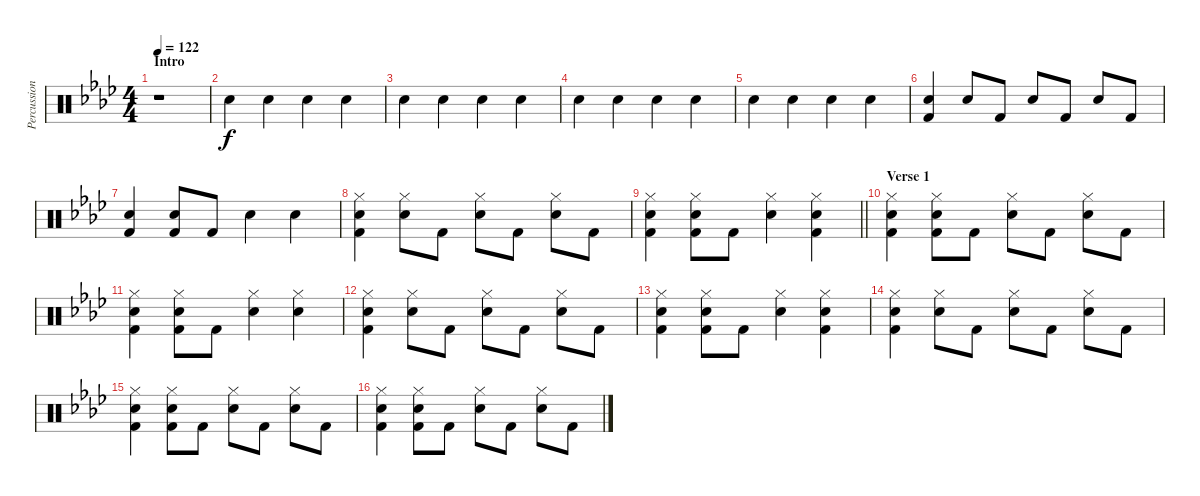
\track ("Percussion" "Percussion") {instrument percussion}
\staff {score}
\articulation defaults
\ts (4 4)
\section ("" "Intro")
\tempo 122
\clef neutral
\ks ab
r.1{dy f} |
"Hand Clap (hit)".4 "Hand Clap (hit)".4 "Hand Clap (hit)".4 "Hand Clap (hit)".4 |
"Hand Clap (hit)".4 "Hand Clap (hit)".4 "Hand Clap (hit)".4 "Hand Clap (hit)".4 |
"Hand Clap (hit)".4 "Hand Clap (hit)".4 "Hand Clap (hit)".4 "Hand Clap (hit)".4 |
"Hand Clap (hit)".4 "Hand Clap (hit)".4 "Hand Clap (hit)".4 "Hand Clap (hit)".4 |
("Hand Clap (hit)" "Kick (hit) 2").4 "Hand Clap (hit)".8 "Kick (hit) 2".8 "Hand Clap (hit)".8 "Kick (hit) 2".8 "Hand Clap (hit)".8 "Kick (hit) 2".8 |
("Hand Clap (hit)" "Kick (hit) 2").4 ("Hand Clap (hit)" "Kick (hit) 2").8 "Kick (hit) 2".8 "Hand Clap (hit)".4 "Hand Clap (hit)".4 |
("Hand Clap (hit)" "Hi-Hat (closed)" "Kick (hit) 2").4 ("Hand Clap (hit)" "Hi-Hat (closed)").8 "Kick (hit) 2".8 ("Hand Clap (hit)" "Hi-Hat (closed)").8 "Kick (hit) 2".8 ("Hand Clap (hit)" "Hi-Hat (closed)").8 "Kick (hit) 2".8 |
\barLineRight lightlight
("Hand Clap (hit)" "Hi-Hat (closed)" "Kick (hit) 2").4 ("Hand Clap (hit)" "Hi-Hat (closed)" "Kick (hit) 2").8 "Kick (hit) 2".8 ("Hand Clap (hit)" "Hi-Hat (closed)").4 ("Hand Clap (hit)" "Hi-Hat (closed)" "Kick (hit) 2").4 |
\section ("" "Verse 1")
("Hand Clap (hit)" "Hi-Hat (closed)" "Kick (hit) 2").4 ("Hand Clap (hit)" "Hi-Hat (closed)" "Kick (hit) 2").8 "Kick (hit) 2".8 ("Hand Clap (hit)" "Hi-Hat (closed)").8 "Kick (hit) 2".8 ("Hand Clap (hit)" "Hi-Hat (closed)").8 "Kick (hit) 2".8 |
("Hand Clap (hit)" "Hi-Hat (closed)" "Kick (hit) 2").4 ("Hand Clap (hit)" "Hi-Hat (closed)" "Kick (hit) 2").8 "Kick (hit) 2".8 ("Hand Clap (hit)" "Hi-Hat (closed)").4 ("Hand Clap (hit)" "Hi-Hat (closed)").4 |
("Hand Clap (hit)" "Hi-Hat (closed)" "Kick (hit) 2").4 ("Hand Clap (hit)" "Hi-Hat (closed)").8 "Kick (hit) 2".8 ("Hand Clap (hit)" "Hi-Hat (closed)").8 "Kick (hit) 2".8 ("Hand Clap (hit)" "Hi-Hat (closed)").8 "Kick (hit) 2".8 |
("Hand Clap (hit)" "Hi-Hat (closed)" "Kick (hit) 2").4 ("Hand Clap (hit)" "Hi-Hat (closed)" "Kick (hit) 2").8 "Kick (hit) 2".8 ("Hand Clap (hit)" "Hi-Hat (closed)").4 ("Hand Clap (hit)" "Hi-Hat (closed)" "Kick (hit) 2").4 |
("Hand Clap (hit)" "Hi-Hat (closed)" "Kick (hit) 2").4 ("Hand Clap (hit)" "Hi-Hat (closed)").8 "Kick (hit) 2".8 ("Hand Clap (hit)" "Hi-Hat (closed)").8 "Kick (hit) 2".8 ("Hand Clap (hit)" "Hi-Hat (closed)").8 "Kick (hit) 2".8 |
("Hand Clap (hit)" "Hi-Hat (closed)" "Kick (hit) 2").4 ("Hand Clap (hit)" "Hi-Hat (closed)" "Kick (hit) 2").8 "Kick (hit) 2".8 ("Hand Clap (hit)" "Hi-Hat (closed)").8 "Kick (hit) 2".8 ("Hand Clap (hit)" "Hi-Hat (closed)").8 "Kick (hit) 2".8 |
("Hand Clap (hit)" "Hi-Hat (closed)" "Kick (hit) 2").4 ("Hand Clap (hit)" "Hi-Hat (closed)" "Kick (hit) 2").8 "Kick (hit) 2".8 ("Hand Clap (hit)" "Hi-Hat (closed)").8 "Kick (hit) 2".8 ("Hand Clap (hit)" "Hi-Hat (closed)").8 "Kick (hit) 2".8
